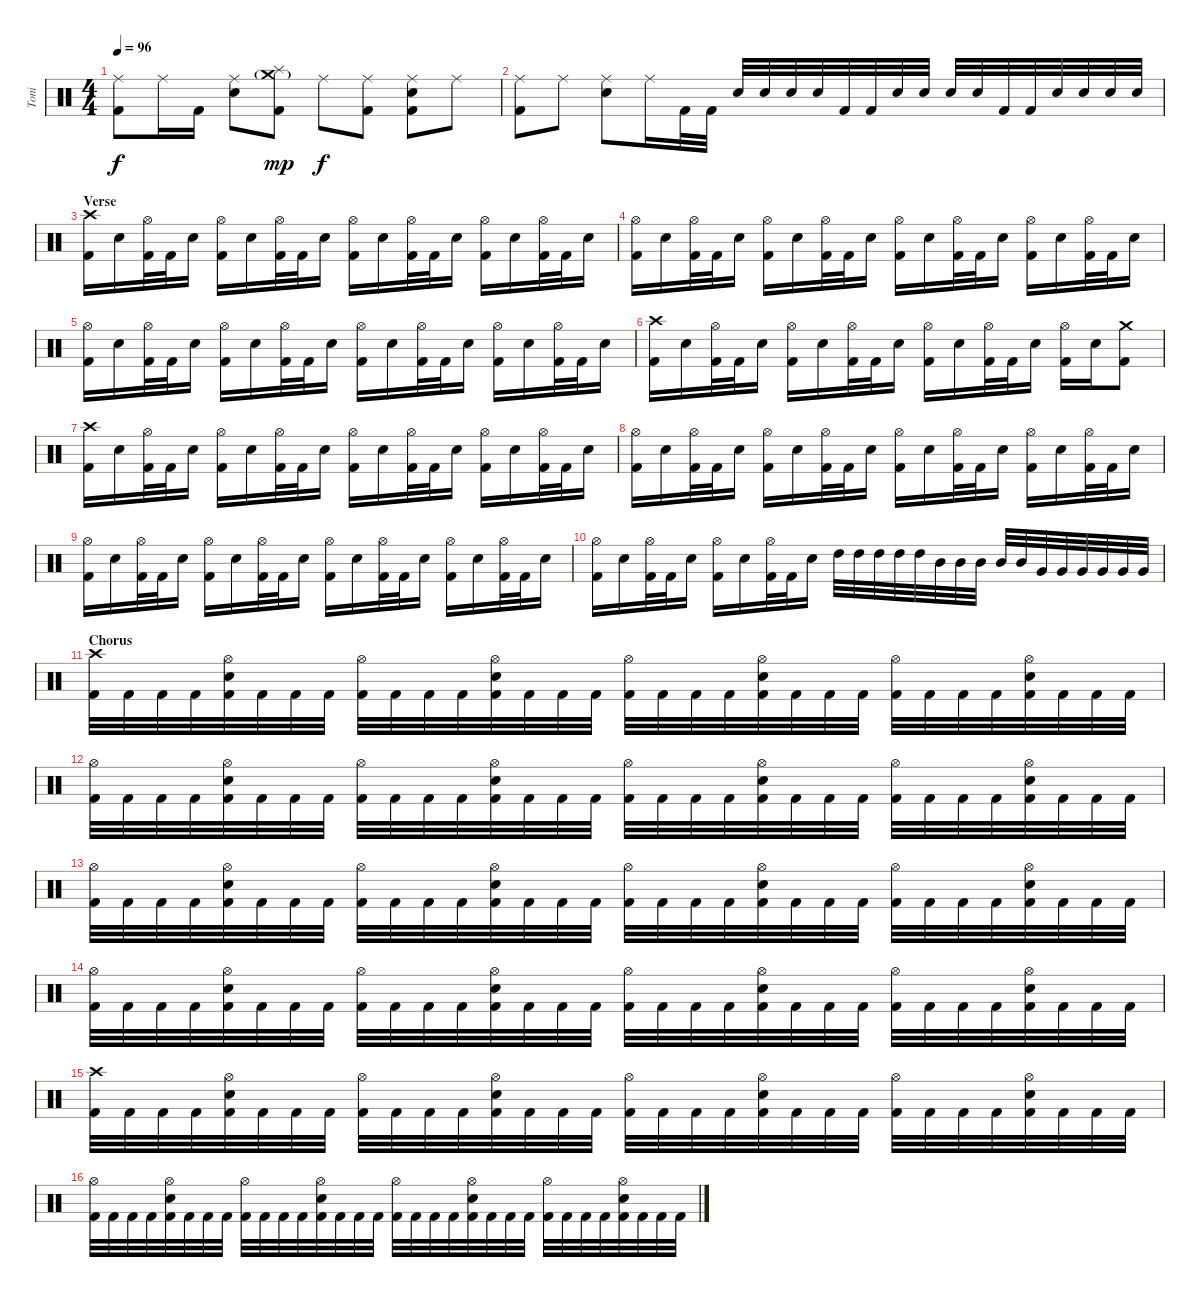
\track ("Toni" "Toni") {instrument percussion}
\staff {score}
\articulation defaults
\ts (4 4)
\tempo 96
\clef neutral
\ks c
("Ride (middle)" "Kick (hit) 2").8{dy f} "Ride (middle)".16 "Kick (hit) 2".16 ("Ride (middle)" "Electric Snare (hit)").8 ("Crash medium (hit)"{g} "Splash (hit)" "Kick (hit) 2").8{dy mp} "Ride (middle)".8{dy f} ("Ride (middle)" "Kick (hit) 2").8 ("Ride (middle)" "Electric Snare (hit)" "Kick (hit) 2").8 "Ride (middle)".8 |
("Ride (middle)" "Kick (hit) 2").8 "Ride (middle)".8 ("Ride (middle)" "Electric Snare (hit)").8 "Ride (middle)".16 "Kick (hit) 2".32 "Kick (hit) 2".32 "Electric Snare (hit)".32 "Electric Snare (hit)".32 "Electric Snare (hit)".32 "Electric Snare (hit)".32 "Kick (hit) 2".32 "Kick (hit) 2".32 "Electric Snare (hit)".32 "Electric Snare (hit)".32 "Electric Snare (hit)".32 "Electric Snare (hit)".32 "Kick (hit) 2".32 "Kick (hit) 2".32 "Electric Snare (hit)".32 "Electric Snare (hit)".32 "Electric Snare (hit)".32 "Electric Snare (hit)".32 |
\section ("" "Verse")
("Crash high (hit)" "Kick (hit) 2").16 "Electric Snare (hit)".16 ("Hi-Hat (open)" "Kick (hit) 2").32 "Kick (hit) 2".32 "Electric Snare (hit)".16 ("Hi-Hat (open)" "Kick (hit) 2").16 "Electric Snare (hit)".16 ("Hi-Hat (open)" "Kick (hit) 2").32 "Kick (hit) 2".32 "Electric Snare (hit)".16 ("Hi-Hat (open)" "Kick (hit) 2").16 "Electric Snare (hit)".16 ("Hi-Hat (open)" "Kick (hit) 2").32 "Kick (hit) 2".32 "Electric Snare (hit)".16 ("Hi-Hat (open)" "Kick (hit) 2").16 "Electric Snare (hit)".16 ("Hi-Hat (open)" "Kick (hit) 2").32 "Kick (hit) 2".32 "Electric Snare (hit)".16 |
("Hi-Hat (open)" "Kick (hit) 2").16 "Electric Snare (hit)".16 ("Hi-Hat (open)" "Kick (hit) 2").32 "Kick (hit) 2".32 "Electric Snare (hit)".16 ("Hi-Hat (open)" "Kick (hit) 2").16 "Electric Snare (hit)".16 ("Hi-Hat (open)" "Kick (hit) 2").32 "Kick (hit) 2".32 "Electric Snare (hit)".16 ("Hi-Hat (open)" "Kick (hit) 2").16 "Electric Snare (hit)".16 ("Hi-Hat (open)" "Kick (hit) 2").32 "Kick (hit) 2".32 "Electric Snare (hit)".16 ("Hi-Hat (open)" "Kick (hit) 2").16 "Electric Snare (hit)".16 ("Hi-Hat (open)" "Kick (hit) 2").32 "Kick (hit) 2".32 "Electric Snare (hit)".16 |
("Hi-Hat (open)" "Kick (hit) 2").16 "Electric Snare (hit)".16 ("Hi-Hat (open)" "Kick (hit) 2").32 "Kick (hit) 2".32 "Electric Snare (hit)".16 ("Hi-Hat (open)" "Kick (hit) 2").16 "Electric Snare (hit)".16 ("Hi-Hat (open)" "Kick (hit) 2").32 "Kick (hit) 2".32 "Electric Snare (hit)".16 ("Hi-Hat (open)" "Kick (hit) 2").16 "Electric Snare (hit)".16 ("Hi-Hat (open)" "Kick (hit) 2").32 "Kick (hit) 2".32 "Electric Snare (hit)".16 ("Hi-Hat (open)" "Kick (hit) 2").16 "Electric Snare (hit)".16 ("Hi-Hat (open)" "Kick (hit) 2").32 "Kick (hit) 2".32 "Electric Snare (hit)".16 |
("Crash high (hit)" "Kick (hit) 2").16 "Electric Snare (hit)".16 ("Hi-Hat (open)" "Kick (hit) 2").32 "Kick (hit) 2".32 "Electric Snare (hit)".16 ("Hi-Hat (open)" "Kick (hit) 2").16 "Electric Snare (hit)".16 ("Hi-Hat (open)" "Kick (hit) 2").32 "Kick (hit) 2".32 "Electric Snare (hit)".16 ("Hi-Hat (open)" "Kick (hit) 2").16 "Electric Snare (hit)".16 ("Hi-Hat (open)" "Kick (hit) 2").32 "Kick (hit) 2".32 "Electric Snare (hit)".16 ("Hi-Hat (open)" "Kick (hit) 2").16 "Electric Snare (hit)".16 ("Crash medium (hit)" "Kick (hit) 2").8 |
("Crash high (hit)" "Kick (hit) 2").16 "Electric Snare (hit)".16 ("Hi-Hat (open)" "Kick (hit) 2").32 "Kick (hit) 2".32 "Electric Snare (hit)".16 ("Hi-Hat (open)" "Kick (hit) 2").16 "Electric Snare (hit)".16 ("Hi-Hat (open)" "Kick (hit) 2").32 "Kick (hit) 2".32 "Electric Snare (hit)".16 ("Hi-Hat (open)" "Kick (hit) 2").16 "Electric Snare (hit)".16 ("Hi-Hat (open)" "Kick (hit) 2").32 "Kick (hit) 2".32 "Electric Snare (hit)".16 ("Hi-Hat (open)" "Kick (hit) 2").16 "Electric Snare (hit)".16 ("Hi-Hat (open)" "Kick (hit) 2").32 "Kick (hit) 2".32 "Electric Snare (hit)".16 |
("Hi-Hat (open)" "Kick (hit) 2").16 "Electric Snare (hit)".16 ("Hi-Hat (open)" "Kick (hit) 2").32 "Kick (hit) 2".32 "Electric Snare (hit)".16 ("Hi-Hat (open)" "Kick (hit) 2").16 "Electric Snare (hit)".16 ("Hi-Hat (open)" "Kick (hit) 2").32 "Kick (hit) 2".32 "Electric Snare (hit)".16 ("Hi-Hat (open)" "Kick (hit) 2").16 "Electric Snare (hit)".16 ("Hi-Hat (open)" "Kick (hit) 2").32 "Kick (hit) 2".32 "Electric Snare (hit)".16 ("Hi-Hat (open)" "Kick (hit) 2").16 "Electric Snare (hit)".16 ("Hi-Hat (open)" "Kick (hit) 2").32 "Kick (hit) 2".32 "Electric Snare (hit)".16 |
("Hi-Hat (open)" "Kick (hit) 2").16 "Electric Snare (hit)".16 ("Hi-Hat (open)" "Kick (hit) 2").32 "Kick (hit) 2".32 "Electric Snare (hit)".16 ("Hi-Hat (open)" "Kick (hit) 2").16 "Electric Snare (hit)".16 ("Hi-Hat (open)" "Kick (hit) 2").32 "Kick (hit) 2".32 "Electric Snare (hit)".16 ("Hi-Hat (open)" "Kick (hit) 2").16 "Electric Snare (hit)".16 ("Hi-Hat (open)" "Kick (hit) 2").32 "Kick (hit) 2".32 "Electric Snare (hit)".16 ("Hi-Hat (open)" "Kick (hit) 2").16 "Electric Snare (hit)".16 ("Hi-Hat (open)" "Kick (hit) 2").32 "Kick (hit) 2".32 "Electric Snare (hit)".16 |
("Hi-Hat (open)" "Kick (hit) 2").16 "Electric Snare (hit)".16 ("Hi-Hat (open)" "Kick (hit) 2").32 "Kick (hit) 2".32 "Electric Snare (hit)".16 ("Hi-Hat (open)" "Kick (hit) 2").16 "Electric Snare (hit)".16 ("Hi-Hat (open)" "Kick (hit) 2").32 "Kick (hit) 2".32 "Electric Snare (hit)".16 "High Tom (hit)".32 "High Tom (hit)".32 "High Tom (hit)".32 "High Tom (hit)".32 "High Tom (hit)".32 "Mid Tom (hit)".32 "Mid Tom (hit)".32 "Mid Tom (hit)".32 "Mid Tom (hit)".32 "Mid Tom (hit)".32 "Very Low Tom (hit)".32 "Very Low Tom (hit)".32 "Very Low Tom (hit)".32 "Very Low Tom (hit)".32 "Very Low Tom (hit)".32 "Very Low Tom (hit)".32 |
\section ("" "Chorus")
("Crash high (hit)" "Kick (hit) 2").32 "Kick (hit) 2".32 "Kick (hit) 2".32 "Kick (hit) 2".32 ("Hi-Hat (open)" "Electric Snare (hit)" "Kick (hit) 2").32 "Kick (hit) 2".32 "Kick (hit) 2".32 "Kick (hit) 2".32 ("Hi-Hat (open)" "Kick (hit) 2").32 "Kick (hit) 2".32 "Kick (hit) 2".32 "Kick (hit) 2".32 ("Hi-Hat (open)" "Electric Snare (hit)" "Kick (hit) 2").32 "Kick (hit) 2".32 "Kick (hit) 2".32 "Kick (hit) 2".32 ("Hi-Hat (open)" "Kick (hit) 2").32 "Kick (hit) 2".32 "Kick (hit) 2".32 "Kick (hit) 2".32 ("Hi-Hat (open)" "Electric Snare (hit)" "Kick (hit) 2").32 "Kick (hit) 2".32 "Kick (hit) 2".32 "Kick (hit) 2".32 ("Hi-Hat (open)" "Kick (hit) 2").32 "Kick (hit) 2".32 "Kick (hit) 2".32 "Kick (hit) 2".32 ("Hi-Hat (open)" "Electric Snare (hit)" "Kick (hit) 2").32 "Kick (hit) 2".32 "Kick (hit) 2".32 "Kick (hit) 2".32 |
("Hi-Hat (open)" "Kick (hit) 2").32 "Kick (hit) 2".32 "Kick (hit) 2".32 "Kick (hit) 2".32 ("Hi-Hat (open)" "Electric Snare (hit)" "Kick (hit) 2").32 "Kick (hit) 2".32 "Kick (hit) 2".32 "Kick (hit) 2".32 ("Hi-Hat (open)" "Kick (hit) 2").32 "Kick (hit) 2".32 "Kick (hit) 2".32 "Kick (hit) 2".32 ("Hi-Hat (open)" "Electric Snare (hit)" "Kick (hit) 2").32 "Kick (hit) 2".32 "Kick (hit) 2".32 "Kick (hit) 2".32 ("Hi-Hat (open)" "Kick (hit) 2").32 "Kick (hit) 2".32 "Kick (hit) 2".32 "Kick (hit) 2".32 ("Hi-Hat (open)" "Electric Snare (hit)" "Kick (hit) 2").32 "Kick (hit) 2".32 "Kick (hit) 2".32 "Kick (hit) 2".32 ("Hi-Hat (open)" "Kick (hit) 2").32 "Kick (hit) 2".32 "Kick (hit) 2".32 "Kick (hit) 2".32 ("Hi-Hat (open)" "Electric Snare (hit)" "Kick (hit) 2").32 "Kick (hit) 2".32 "Kick (hit) 2".32 "Kick (hit) 2".32 |
("Hi-Hat (open)" "Kick (hit) 2").32 "Kick (hit) 2".32 "Kick (hit) 2".32 "Kick (hit) 2".32 ("Hi-Hat (open)" "Electric Snare (hit)" "Kick (hit) 2").32 "Kick (hit) 2".32 "Kick (hit) 2".32 "Kick (hit) 2".32 ("Hi-Hat (open)" "Kick (hit) 2").32 "Kick (hit) 2".32 "Kick (hit) 2".32 "Kick (hit) 2".32 ("Hi-Hat (open)" "Electric Snare (hit)" "Kick (hit) 2").32 "Kick (hit) 2".32 "Kick (hit) 2".32 "Kick (hit) 2".32 ("Hi-Hat (open)" "Kick (hit) 2").32 "Kick (hit) 2".32 "Kick (hit) 2".32 "Kick (hit) 2".32 ("Hi-Hat (open)" "Electric Snare (hit)" "Kick (hit) 2").32 "Kick (hit) 2".32 "Kick (hit) 2".32 "Kick (hit) 2".32 ("Hi-Hat (open)" "Kick (hit) 2").32 "Kick (hit) 2".32 "Kick (hit) 2".32 "Kick (hit) 2".32 ("Hi-Hat (open)" "Electric Snare (hit)" "Kick (hit) 2").32 "Kick (hit) 2".32 "Kick (hit) 2".32 "Kick (hit) 2".32 |
("Hi-Hat (open)" "Kick (hit) 2").32 "Kick (hit) 2".32 "Kick (hit) 2".32 "Kick (hit) 2".32 ("Hi-Hat (open)" "Electric Snare (hit)" "Kick (hit) 2").32 "Kick (hit) 2".32 "Kick (hit) 2".32 "Kick (hit) 2".32 ("Hi-Hat (open)" "Kick (hit) 2").32 "Kick (hit) 2".32 "Kick (hit) 2".32 "Kick (hit) 2".32 ("Hi-Hat (open)" "Electric Snare (hit)" "Kick (hit) 2").32 "Kick (hit) 2".32 "Kick (hit) 2".32 "Kick (hit) 2".32 ("Hi-Hat (open)" "Kick (hit) 2").32 "Kick (hit) 2".32 "Kick (hit) 2".32 "Kick (hit) 2".32 ("Hi-Hat (open)" "Electric Snare (hit)" "Kick (hit) 2").32 "Kick (hit) 2".32 "Kick (hit) 2".32 "Kick (hit) 2".32 ("Hi-Hat (open)" "Kick (hit) 2").32 "Kick (hit) 2".32 "Kick (hit) 2".32 "Kick (hit) 2".32 ("Hi-Hat (open)" "Electric Snare (hit)" "Kick (hit) 2").32 "Kick (hit) 2".32 "Kick (hit) 2".32 "Kick (hit) 2".32 |
("Crash high (hit)" "Kick (hit) 2").32 "Kick (hit) 2".32 "Kick (hit) 2".32 "Kick (hit) 2".32 ("Hi-Hat (open)" "Electric Snare (hit)" "Kick (hit) 2").32 "Kick (hit) 2".32 "Kick (hit) 2".32 "Kick (hit) 2".32 ("Hi-Hat (open)" "Kick (hit) 2").32 "Kick (hit) 2".32 "Kick (hit) 2".32 "Kick (hit) 2".32 ("Hi-Hat (open)" "Electric Snare (hit)" "Kick (hit) 2").32 "Kick (hit) 2".32 "Kick (hit) 2".32 "Kick (hit) 2".32 ("Hi-Hat (open)" "Kick (hit) 2").32 "Kick (hit) 2".32 "Kick (hit) 2".32 "Kick (hit) 2".32 ("Hi-Hat (open)" "Electric Snare (hit)" "Kick (hit) 2").32 "Kick (hit) 2".32 "Kick (hit) 2".32 "Kick (hit) 2".32 ("Hi-Hat (open)" "Kick (hit) 2").32 "Kick (hit) 2".32 "Kick (hit) 2".32 "Kick (hit) 2".32 ("Hi-Hat (open)" "Electric Snare (hit)" "Kick (hit) 2").32 "Kick (hit) 2".32 "Kick (hit) 2".32 "Kick (hit) 2".32 |
("Hi-Hat (open)" "Kick (hit) 2").32 "Kick (hit) 2".32 "Kick (hit) 2".32 "Kick (hit) 2".32 ("Hi-Hat (open)" "Electric Snare (hit)" "Kick (hit) 2").32 "Kick (hit) 2".32 "Kick (hit) 2".32 "Kick (hit) 2".32 ("Hi-Hat (open)" "Kick (hit) 2").32 "Kick (hit) 2".32 "Kick (hit) 2".32 "Kick (hit) 2".32 ("Hi-Hat (open)" "Electric Snare (hit)" "Kick (hit) 2").32 "Kick (hit) 2".32 "Kick (hit) 2".32 "Kick (hit) 2".32 ("Hi-Hat (open)" "Kick (hit) 2").32 "Kick (hit) 2".32 "Kick (hit) 2".32 "Kick (hit) 2".32 ("Hi-Hat (open)" "Electric Snare (hit)" "Kick (hit) 2").32 "Kick (hit) 2".32 "Kick (hit) 2".32 "Kick (hit) 2".32 ("Hi-Hat (open)" "Kick (hit) 2").32 "Kick (hit) 2".32 "Kick (hit) 2".32 "Kick (hit) 2".32 ("Hi-Hat (open)" "Electric Snare (hit)" "Kick (hit) 2").32 "Kick (hit) 2".32 "Kick (hit) 2".32 "Kick (hit) 2".32
